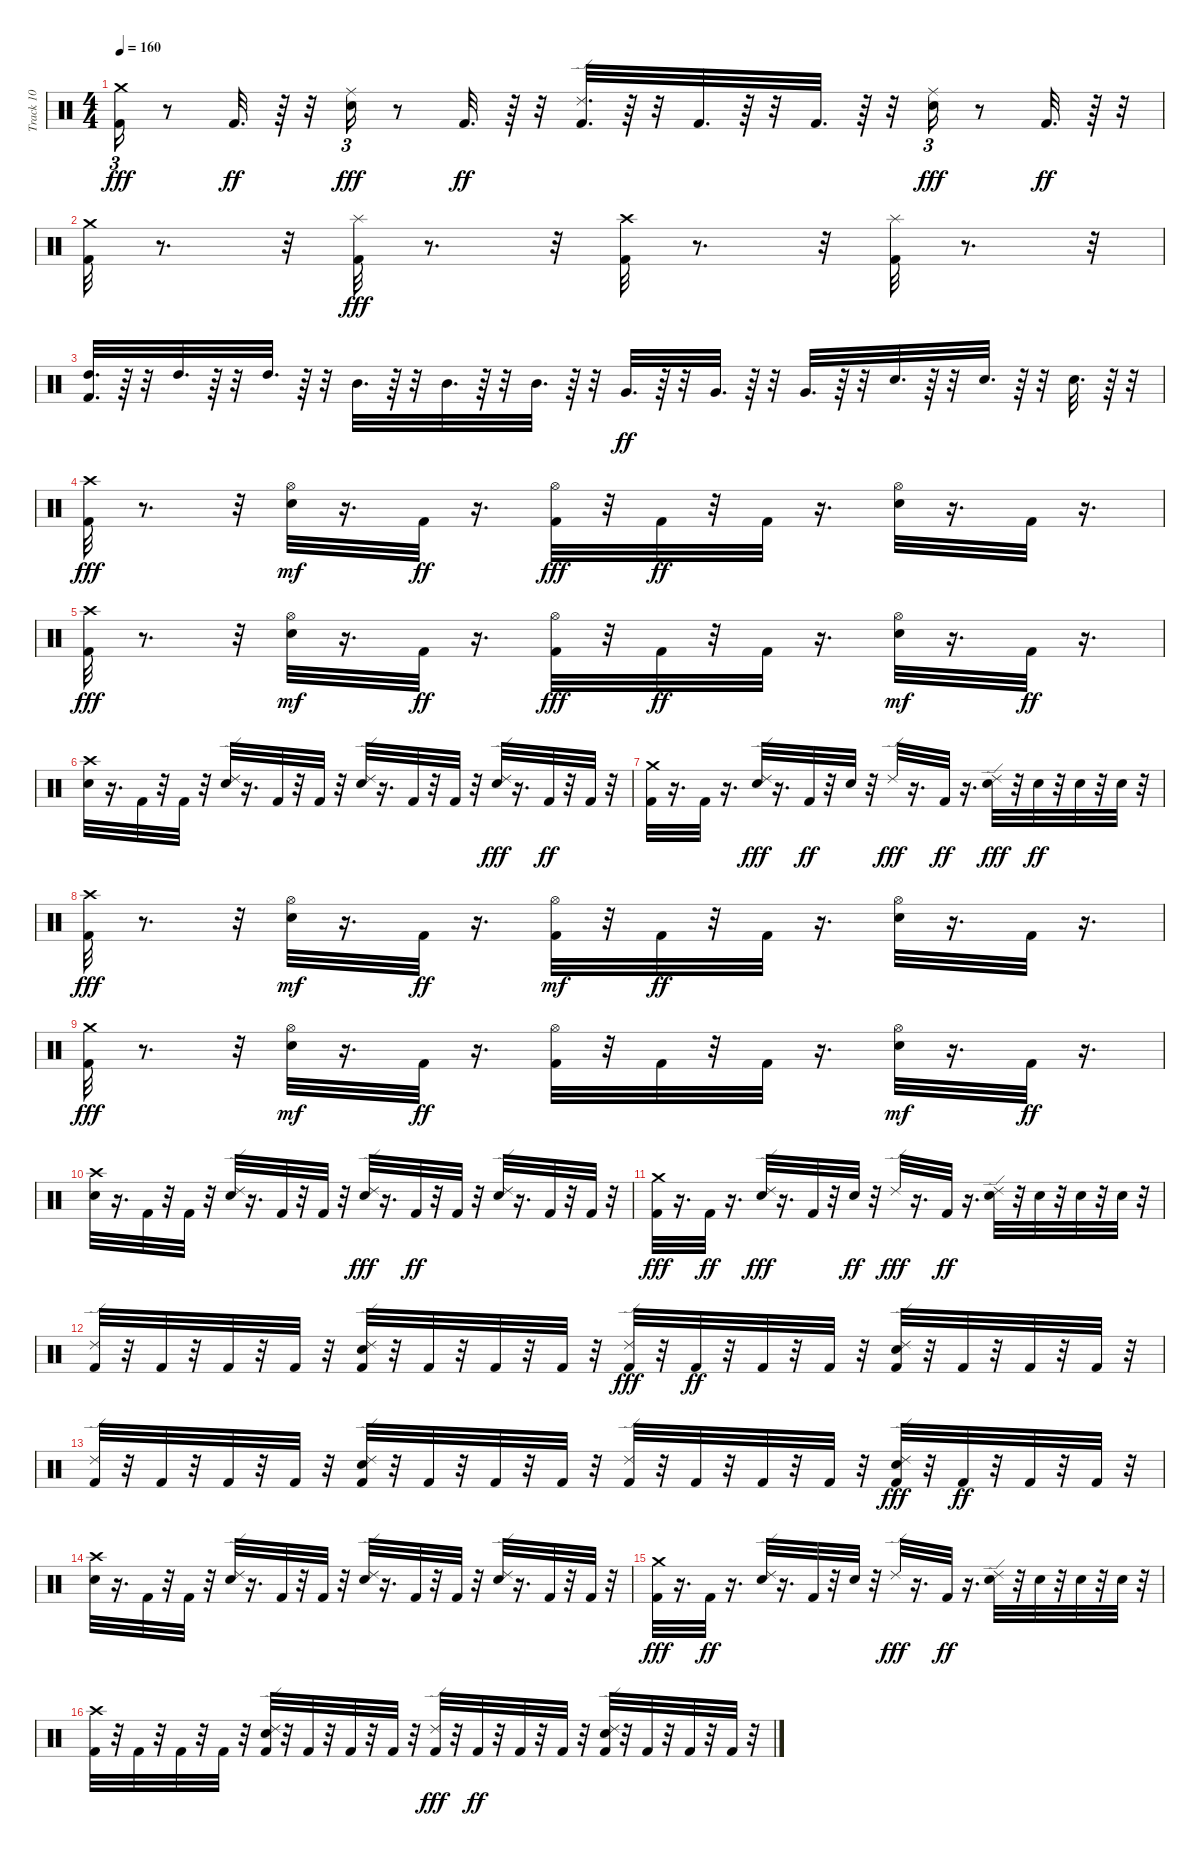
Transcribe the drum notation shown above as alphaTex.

\track ("Track 10" "Track 10") {instrument percussion}
\staff {score}
\articulation defaults
\ts (4 4)
\tempo 160
\clef neutral
\ks c
("Kick (hit) 2" "Crash medium (hit)").16{tu (3 2) dy fff} r.8 "Kick (hit) 2".32{d dy ff} r.64 r.32 ("Electric Snare (hit)" "Ride (middle)").16{tu (3 2) dy fff} r.8 "Kick (hit) 2".32{d dy ff} r.64 r.32 ("Ride (edge) 2" "Kick (hit) 2").32{d} r.64 r.32 "Kick (hit) 2".32{d} r.64 r.32 "Kick (hit) 2".32{d} r.64 r.32 ("Electric Snare (hit)" "Ride (middle)").16{tu (3 2) dy fff} r.8 "Kick (hit) 2".32{d dy ff} r.64 r.32 |
("Crash medium (hit)" "Kick (hit) 2").32 r.8{d} r.32 ("Splash (hit)" "Kick (hit) 2").32{dy fff} r.8{d} r.32 ("Crash high (hit)" "Kick (hit) 2").32 r.8{d} r.32 ("Kick (hit) 2" "Splash (hit)").32 r.8{d} r.32 |
("High Tom (hit)" "Kick (hit) 2").32{d} r.64 r.32 "High Tom (hit)".32{d} r.64 r.32 "High Tom (hit)".32{d} r.64 r.32 "Mid Tom (hit)".32{d} r.64 r.32 "Mid Tom (hit)".32{d} r.64 r.32 "Mid Tom (hit)".32{d} r.64 r.32 "Very Low Tom (hit)".32{d dy ff} r.64 r.32 "Very Low Tom (hit)".32{d} r.64 r.32 "Very Low Tom (hit)".32{d} r.64 r.32 "Electric Snare (hit)".32{d} r.64 r.32 "Electric Snare (hit)".32{d} r.64 r.32 "Electric Snare (hit)".32{d} r.64 r.32 |
("Crash high (hit)" "Kick (hit) 2").32{dy fff} r.8{d} r.32 ("Electric Snare (hit)" "Hi-Hat (open)").32{dy mf} r.16{d} "Kick (hit) 2".32{dy ff} r.16{d} ("Hi-Hat (open)" "Kick (hit) 2").32{dy fff} r.32 "Kick (hit) 2".32{dy ff} r.32 "Kick (hit) 2".32 r.16{d} ("Hi-Hat (open)" "Electric Snare (hit)").32 r.16{d} "Kick (hit) 2".32 r.16{d} |
("Crash high (hit)" "Kick (hit) 2").32{dy fff} r.8{d} r.32 ("Electric Snare (hit)" "Hi-Hat (open)").32{dy mf} r.16{d} "Kick (hit) 2".32{dy ff} r.16{d} ("Hi-Hat (open)" "Kick (hit) 2").32{dy fff} r.32 "Kick (hit) 2".32{dy ff} r.32 "Kick (hit) 2".32 r.16{d} ("Electric Snare (hit)" "Hi-Hat (open)").32{dy mf} r.16{d} "Kick (hit) 2".32{dy ff} r.16{d} |
("Electric Snare (hit)" "Crash high (hit)").32 r.16{d} "Kick (hit) 2".32 r.32 "Kick (hit) 2".32 r.32 ("Ride (edge) 2" "Electric Snare (hit)").32 r.16{d} "Kick (hit) 2".32 r.32 "Kick (hit) 2".32 r.32 ("Ride (edge) 2" "Electric Snare (hit)").32 r.16{d} "Kick (hit) 2".32 r.32 "Kick (hit) 2".32 r.32 ("Electric Snare (hit)" "Ride (edge) 2").32{dy fff} r.16{d} "Kick (hit) 2".32{dy ff} r.32 "Kick (hit) 2".32 r.32 |
("Kick (hit) 2" "Crash medium (hit)").32 r.16{d} "Kick (hit) 2".32 r.16{d} ("Electric Snare (hit)" "Ride (edge) 2").32{dy fff} r.16{d} "Kick (hit) 2".32{dy ff} r.32 "Electric Snare (hit)".32 r.32 "Ride (edge) 2".32{dy fff} r.16{d} "Kick (hit) 2".32{dy ff} r.16{d} ("Electric Snare (hit)" "Ride (edge) 2").32{dy fff} r.32 "Electric Snare (hit)".32{dy ff} r.32 "Electric Snare (hit)".32 r.32 "Electric Snare (hit)".32 r.32 |
("Kick (hit) 2" "Crash high (hit)").32{dy fff} r.8{d} r.32 ("Electric Snare (hit)" "Hi-Hat (open)").32{dy mf} r.16{d} "Kick (hit) 2".32{dy ff} r.16{d} ("Kick (hit) 2" "Hi-Hat (open)").32{dy mf} r.32 "Kick (hit) 2".32{dy ff} r.32 "Kick (hit) 2".32 r.16{d} ("Hi-Hat (open)" "Electric Snare (hit)").32 r.16{d} "Kick (hit) 2".32 r.16{d} |
("Crash medium (hit)" "Kick (hit) 2").32{dy fff} r.8{d} r.32 ("Electric Snare (hit)" "Hi-Hat (open)").32{dy mf} r.16{d} "Kick (hit) 2".32{dy ff} r.16{d} ("Hi-Hat (open)" "Kick (hit) 2").32 r.32 "Kick (hit) 2".32 r.32 "Kick (hit) 2".32 r.16{d} ("Electric Snare (hit)" "Hi-Hat (open)").32{dy mf} r.16{d} "Kick (hit) 2".32{dy ff} r.16{d} |
("Electric Snare (hit)" "Crash high (hit)").32 r.16{d} "Kick (hit) 2".32 r.32 "Kick (hit) 2".32 r.32 ("Ride (edge) 2" "Electric Snare (hit)").32 r.16{d} "Kick (hit) 2".32 r.32 "Kick (hit) 2".32 r.32 ("Electric Snare (hit)" "Ride (edge) 2").32{dy fff} r.16{d} "Kick (hit) 2".32{dy ff} r.32 "Kick (hit) 2".32 r.32 ("Ride (edge) 2" "Electric Snare (hit)").32 r.16{d} "Kick (hit) 2".32 r.32 "Kick (hit) 2".32 r.32 |
("Crash medium (hit)" "Kick (hit) 2").32{dy fff} r.16{d} "Kick (hit) 2".32{dy ff} r.16{d} ("Electric Snare (hit)" "Ride (edge) 2").32{dy fff} r.16{d} "Kick (hit) 2".32 r.32 "Electric Snare (hit)".32{dy ff} r.32 "Ride (edge) 2".32{dy fff} r.16{d} "Kick (hit) 2".32{dy ff} r.16{d} ("Ride (edge) 2" "Electric Snare (hit)").32 r.32 "Electric Snare (hit)".32 r.32 "Electric Snare (hit)".32 r.32 "Electric Snare (hit)".32 r.32 |
("Ride (edge) 2" "Kick (hit) 2").32 r.32 "Kick (hit) 2".32 r.32 "Kick (hit) 2".32 r.32 "Kick (hit) 2".32 r.32 ("Electric Snare (hit)" "Ride (edge) 2" "Kick (hit) 2").32 r.32 "Kick (hit) 2".32 r.32 "Kick (hit) 2".32 r.32 "Kick (hit) 2".32 r.32 ("Kick (hit) 2" "Ride (edge) 2").32{dy fff} r.32 "Kick (hit) 2".32{dy ff} r.32 "Kick (hit) 2".32 r.32 "Kick (hit) 2".32 r.32 ("Ride (edge) 2" "Kick (hit) 2" "Electric Snare (hit)").32 r.32 "Kick (hit) 2".32 r.32 "Kick (hit) 2".32 r.32 "Kick (hit) 2".32 r.32 |
("Ride (edge) 2" "Kick (hit) 2").32 r.32 "Kick (hit) 2".32 r.32 "Kick (hit) 2".32 r.32 "Kick (hit) 2".32 r.32 ("Ride (edge) 2" "Electric Snare (hit)" "Kick (hit) 2").32 r.32 "Kick (hit) 2".32 r.32 "Kick (hit) 2".32 r.32 "Kick (hit) 2".32 r.32 ("Ride (edge) 2" "Kick (hit) 2").32 r.32 "Kick (hit) 2".32 r.32 "Kick (hit) 2".32 r.32 "Kick (hit) 2".32 r.32 ("Kick (hit) 2" "Electric Snare (hit)" "Ride (edge) 2").32{dy fff} r.32 "Kick (hit) 2".32{dy ff} r.32 "Kick (hit) 2".32 r.32 "Kick (hit) 2".32 r.32 |
("Electric Snare (hit)" "Crash high (hit)").32 r.16{d} "Kick (hit) 2".32 r.32 "Kick (hit) 2".32 r.32 ("Ride (edge) 2" "Electric Snare (hit)").32 r.16{d} "Kick (hit) 2".32 r.32 "Kick (hit) 2".32 r.32 ("Ride (edge) 2" "Electric Snare (hit)").32 r.16{d} "Kick (hit) 2".32 r.32 "Kick (hit) 2".32 r.32 ("Ride (edge) 2" "Electric Snare (hit)").32 r.16{d} "Kick (hit) 2".32 r.32 "Kick (hit) 2".32 r.32 |
("Crash medium (hit)" "Kick (hit) 2").32{dy fff} r.16{d} "Kick (hit) 2".32{dy ff} r.16{d} ("Ride (edge) 2" "Electric Snare (hit)").32 r.16{d} "Kick (hit) 2".32 r.32 "Electric Snare (hit)".32 r.32 "Ride (edge) 2".32{dy fff} r.16{d} "Kick (hit) 2".32{dy ff} r.16{d} ("Ride (edge) 2" "Electric Snare (hit)").32 r.32 "Electric Snare (hit)".32 r.32 "Electric Snare (hit)".32 r.32 "Electric Snare (hit)".32 r.32 |
("Crash high (hit)" "Kick (hit) 2").32 r.32 "Kick (hit) 2".32 r.32 "Kick (hit) 2".32 r.32 "Kick (hit) 2".32 r.32 ("Kick (hit) 2" "Ride (edge) 2" "Electric Snare (hit)").32 r.32 "Kick (hit) 2".32 r.32 "Kick (hit) 2".32 r.32 "Kick (hit) 2".32 r.32 ("Kick (hit) 2" "Ride (edge) 2").32{dy fff} r.32 "Kick (hit) 2".32{dy ff} r.32 "Kick (hit) 2".32 r.32 "Kick (hit) 2".32 r.32 ("Electric Snare (hit)" "Ride (edge) 2" "Kick (hit) 2").32 r.32 "Kick (hit) 2".32 r.32 "Kick (hit) 2".32 r.32 "Kick (hit) 2".32 r.32
